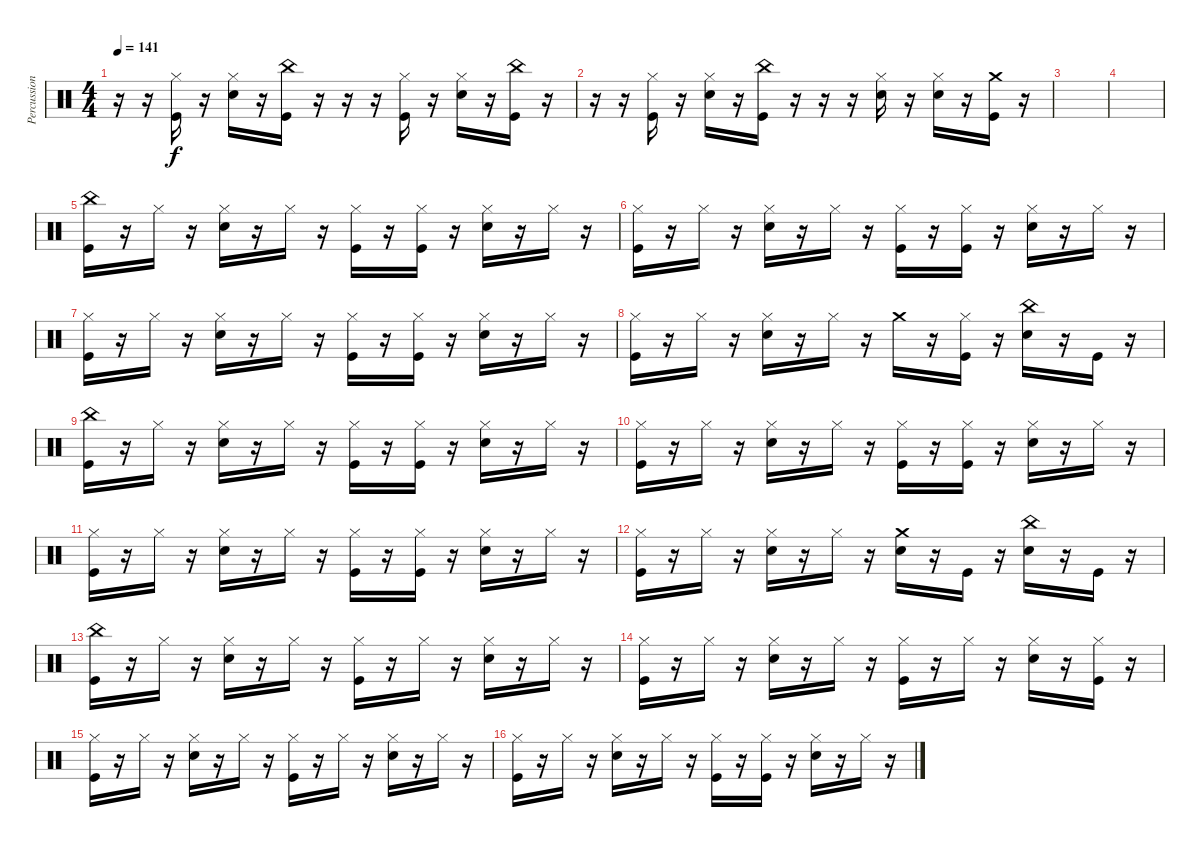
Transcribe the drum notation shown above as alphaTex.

\track ("Percussion" "Percussion") {instrument percussion}
\staff {score}
\articulation defaults
\ts (4 4)
\tempo 141
\clef neutral
\ks c
r.16{dy f} r.16 ("Hi-Hat (closed)" "Kick (hit)").16 r.16 ("Hi-Hat (closed)" "Electric Snare (hit)").16 r.16 ("China (hit)" "Kick (hit)").16 r.16 r.16 r.16 ("Hi-Hat (closed)" "Kick (hit)").16 r.16 ("Hi-Hat (closed)" "Electric Snare (hit)").16 r.16 ("China (hit)" "Kick (hit)").16 r.16 |
r.16 r.16 ("Hi-Hat (closed)" "Kick (hit)").16 r.16 ("Hi-Hat (closed)" "Electric Snare (hit)").16 r.16 ("China (hit)" "Kick (hit)").16 r.16 r.16 r.16 ("Hi-Hat (closed)" "Electric Snare (hit)").16 r.16 ("Hi-Hat (closed)" "Electric Snare (hit)").16 r.16 ("Crash medium (hit)" "Kick (hit)").16 r.16 |
|
|
("China (hit)" "Kick (hit)").16 r.16 "Hi-Hat (closed)".16 r.16 ("Hi-Hat (closed)" "Electric Snare (hit)").16 r.16 "Hi-Hat (closed)".16 r.16 ("Hi-Hat (closed)" "Kick (hit)").16 r.16 ("Hi-Hat (closed)" "Kick (hit)").16 r.16 ("Hi-Hat (closed)" "Electric Snare (hit)").16 r.16 "Hi-Hat (closed)".16 r.16 |
("Hi-Hat (closed)" "Kick (hit)").16 r.16 "Hi-Hat (closed)".16 r.16 ("Hi-Hat (closed)" "Electric Snare (hit)").16 r.16 "Hi-Hat (closed)".16 r.16 ("Hi-Hat (closed)" "Kick (hit)").16 r.16 ("Hi-Hat (closed)" "Kick (hit)").16 r.16 ("Hi-Hat (closed)" "Electric Snare (hit)").16 r.16 "Hi-Hat (closed)".16 r.16 |
("Hi-Hat (closed)" "Kick (hit)").16 r.16 "Hi-Hat (closed)".16 r.16 ("Hi-Hat (closed)" "Electric Snare (hit)").16 r.16 "Hi-Hat (closed)".16 r.16 ("Hi-Hat (closed)" "Kick (hit)").16 r.16 ("Hi-Hat (closed)" "Kick (hit)").16 r.16 ("Hi-Hat (closed)" "Electric Snare (hit)").16 r.16 "Hi-Hat (closed)".16 r.16 |
("Hi-Hat (closed)" "Kick (hit)").16 r.16 "Hi-Hat (closed)".16 r.16 ("Hi-Hat (closed)" "Electric Snare (hit)").16 r.16 "Hi-Hat (closed)".16 r.16 "Crash medium (hit)".16 r.16 ("Hi-Hat (closed)" "Kick (hit)").16 r.16 ("China (hit)" "Electric Snare (hit)").16 r.16 "Kick (hit)".16 r.16 |
("China (hit)" "Kick (hit)").16 r.16 "Hi-Hat (closed)".16 r.16 ("Hi-Hat (closed)" "Electric Snare (hit)").16 r.16 "Hi-Hat (closed)".16 r.16 ("Hi-Hat (closed)" "Kick (hit)").16 r.16 ("Hi-Hat (closed)" "Kick (hit)").16 r.16 ("Hi-Hat (closed)" "Electric Snare (hit)").16 r.16 "Hi-Hat (closed)".16 r.16 |
("Hi-Hat (closed)" "Kick (hit)").16 r.16 "Hi-Hat (closed)".16 r.16 ("Hi-Hat (closed)" "Electric Snare (hit)").16 r.16 "Hi-Hat (closed)".16 r.16 ("Hi-Hat (closed)" "Kick (hit)").16 r.16 ("Hi-Hat (closed)" "Kick (hit)").16 r.16 ("Hi-Hat (closed)" "Electric Snare (hit)").16 r.16 "Hi-Hat (closed)".16 r.16 |
("Hi-Hat (closed)" "Kick (hit)").16 r.16 "Hi-Hat (closed)".16 r.16 ("Hi-Hat (closed)" "Electric Snare (hit)").16 r.16 "Hi-Hat (closed)".16 r.16 ("Hi-Hat (closed)" "Kick (hit)").16 r.16 ("Hi-Hat (closed)" "Kick (hit)").16 r.16 ("Hi-Hat (closed)" "Electric Snare (hit)").16 r.16 "Hi-Hat (closed)".16 r.16 |
("Hi-Hat (closed)" "Kick (hit)").16 r.16 "Hi-Hat (closed)".16 r.16 ("Hi-Hat (closed)" "Electric Snare (hit)").16 r.16 "Hi-Hat (closed)".16 r.16 ("Crash medium (hit)" "Electric Snare (hit)").16 r.16 "Kick (hit)".16 r.16 ("China (hit)" "Electric Snare (hit)").16 r.16 "Kick (hit)".16 r.16 |
("China (hit)" "Kick (hit)").16 r.16 "Hi-Hat (closed)".16 r.16 ("Hi-Hat (closed)" "Electric Snare (hit)").16 r.16 "Hi-Hat (closed)".16 r.16 ("Hi-Hat (closed)" "Kick (hit)").16 r.16 "Hi-Hat (closed)".16 r.16 ("Hi-Hat (closed)" "Electric Snare (hit)").16 r.16 "Hi-Hat (closed)".16 r.16 |
("Hi-Hat (closed)" "Kick (hit)").16 r.16 "Hi-Hat (closed)".16 r.16 ("Hi-Hat (closed)" "Electric Snare (hit)").16 r.16 "Hi-Hat (closed)".16 r.16 ("Hi-Hat (closed)" "Kick (hit)").16 r.16 "Hi-Hat (closed)".16 r.16 ("Hi-Hat (closed)" "Electric Snare (hit)").16 r.16 ("Hi-Hat (closed)" "Kick (hit)").16 r.16 |
("Hi-Hat (closed)" "Kick (hit)").16 r.16 "Hi-Hat (closed)".16 r.16 ("Hi-Hat (closed)" "Electric Snare (hit)").16 r.16 "Hi-Hat (closed)".16 r.16 ("Hi-Hat (closed)" "Kick (hit)").16 r.16 "Hi-Hat (closed)".16 r.16 ("Hi-Hat (closed)" "Electric Snare (hit)").16 r.16 "Hi-Hat (closed)".16 r.16 |
("Hi-Hat (closed)" "Kick (hit)").16 r.16 "Hi-Hat (closed)".16 r.16 ("Hi-Hat (closed)" "Electric Snare (hit)").16 r.16 "Hi-Hat (closed)".16 r.16 ("Hi-Hat (closed)" "Kick (hit)").16 r.16 ("Hi-Hat (closed)" "Kick (hit)").16 r.16 ("Hi-Hat (closed)" "Electric Snare (hit)").16 r.16 "Hi-Hat (closed)".16 r.16
